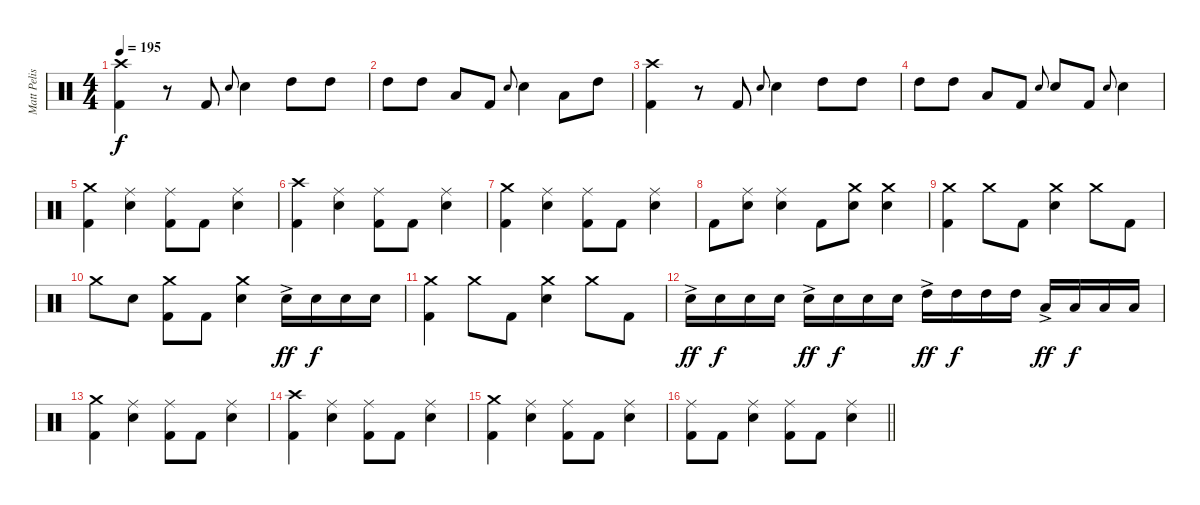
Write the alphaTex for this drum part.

\track ("Matt Pelissier" "Matt Pelis") {instrument percussion}
\staff {score}
\articulation defaults
\ts (4 4)
\tempo 195
\clef neutral
\ks c
("Crash high (hit)" "Kick (hit) 2").4{dy f} r.8 "Kick (hit) 2".8 "Electric Snare (hit)".8{gr onbeat} "Electric Snare (hit)".4 "High Tom (hit)".8 "High Tom (hit)".8 |
"High Tom (hit)".8 "High Tom (hit)".8 "Low Tom (hit)".8 "Kick (hit) 2".8 "Electric Snare (hit)".8{gr onbeat} "Electric Snare (hit)".4 "Low Tom (hit)".8 "High Tom (hit)".8 |
("Crash high (hit)" "Kick (hit) 2").4 r.8 "Kick (hit) 2".8 "Electric Snare (hit)".8{gr onbeat} "Electric Snare (hit)".4 "High Tom (hit)".8 "High Tom (hit)".8 |
"High Tom (hit)".8 "High Tom (hit)".8 "Low Tom (hit)".8 "Kick (hit) 2".8 "Electric Snare (hit)".8{gr onbeat} "Electric Snare (hit)".8 "Kick (hit) 2".8 "Electric Snare (hit)".8{gr onbeat} "Electric Snare (hit)".4 |
("Crash medium (hit)" "Kick (hit) 2").4 ("Ride (middle)" "Electric Snare (hit)").4 ("Ride (middle)" "Kick (hit) 2").8 "Kick (hit) 2".8 ("Ride (middle)" "Electric Snare (hit)").4 |
("Crash high (hit)" "Kick (hit) 2").4 ("Ride (middle)" "Electric Snare (hit)").4 ("Ride (middle)" "Kick (hit) 2").8 "Kick (hit) 2".8 ("Ride (middle)" "Electric Snare (hit)").4 |
("Crash medium (hit)" "Kick (hit) 2").4 ("Ride (middle)" "Electric Snare (hit)").4 ("Ride (middle)" "Kick (hit) 2").8 "Kick (hit) 2".8 ("Ride (middle)" "Electric Snare (hit)").4 |
"Kick (hit) 2".8 ("Ride (middle)" "Electric Snare (hit)").8 ("Ride (middle)" "Electric Snare (hit)").4 "Kick (hit) 2".8 ("Crash medium (hit)" "Electric Snare (hit)").8 ("Crash medium (hit)" "Electric Snare (hit)").4 |
("Crash medium (hit)" "Kick (hit) 2").4 "Crash medium (hit)".8 "Kick (hit) 2".8 ("Crash medium (hit)" "Electric Snare (hit)").4 "Crash medium (hit)".8 "Kick (hit) 2".8 |
"Crash medium (hit)".8 "Electric Snare (hit)".8 ("Crash medium (hit)" "Kick (hit) 2").8 "Kick (hit) 2".8 ("Crash medium (hit)" "Electric Snare (hit)").4 "Electric Snare (hit)"{ac}.16{dy ff} "Electric Snare (hit)".16{dy f} "Electric Snare (hit)".16 "Electric Snare (hit)".16 |
("Crash medium (hit)" "Kick (hit) 2").4 "Crash medium (hit)".8 "Kick (hit) 2".8 ("Crash medium (hit)" "Electric Snare (hit)").4 "Crash medium (hit)".8 "Kick (hit) 2".8 |
"Electric Snare (hit)"{ac}.16{dy ff} "Electric Snare (hit)".16{dy f} "Electric Snare (hit)".16 "Electric Snare (hit)".16 "Electric Snare (hit)"{ac}.16{dy ff} "Electric Snare (hit)".16{dy f} "Electric Snare (hit)".16 "Electric Snare (hit)".16 "High Tom (hit)"{ac}.16{dy ff} "High Tom (hit)".16{dy f} "High Tom (hit)".16 "High Tom (hit)".16 "Low Tom (hit)"{ac}.16{dy ff} "Low Tom (hit)".16{dy f} "Low Tom (hit)".16 "Low Tom (hit)".16 |
("Crash medium (hit)" "Kick (hit) 2").4 ("Ride (middle)" "Electric Snare (hit)").4 ("Ride (middle)" "Kick (hit) 2").8 "Kick (hit) 2".8 ("Ride (middle)" "Electric Snare (hit)").4 |
("Crash high (hit)" "Kick (hit) 2").4 ("Ride (middle)" "Electric Snare (hit)").4 ("Ride (middle)" "Kick (hit) 2").8 "Kick (hit) 2".8 ("Ride (middle)" "Electric Snare (hit)").4 |
("Crash medium (hit)" "Kick (hit) 2").4 ("Ride (middle)" "Electric Snare (hit)").4 ("Ride (middle)" "Kick (hit) 2").8 "Kick (hit) 2".8 ("Ride (middle)" "Electric Snare (hit)").4 |
\barLineRight lightlight
("Ride (middle)" "Kick (hit) 2").8 "Kick (hit) 2".8 ("Ride (middle)" "Electric Snare (hit)").4 ("Ride (middle)" "Kick (hit) 2").8 "Kick (hit) 2".8 ("Ride (middle)" "Electric Snare (hit)").4
